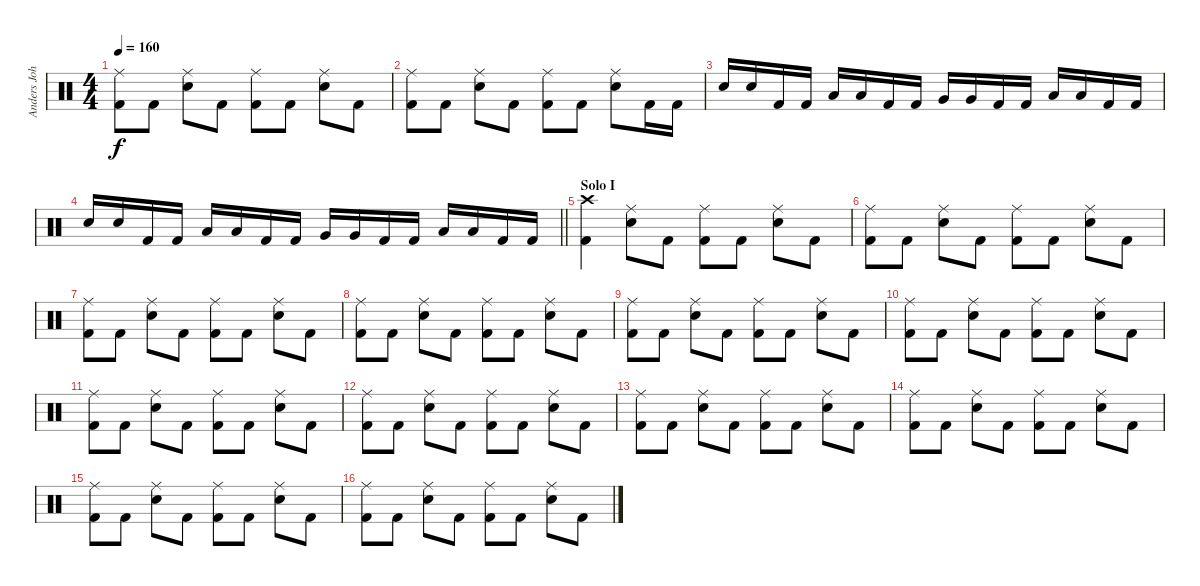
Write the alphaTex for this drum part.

\track ("Anders Johansson" "Anders Joh") {instrument percussion}
\staff {score}
\articulation defaults
\ts (4 4)
\tempo 160
\clef neutral
\ks c
("Ride (middle)" "Kick (hit) 2").8{dy f} "Kick (hit) 2".8 ("Ride (middle)" "Snare (hit) 2").8 "Kick (hit) 2".8 ("Ride (middle)" "Kick (hit) 2").8 "Kick (hit) 2".8 ("Ride (middle)" "Snare (hit) 2").8 "Kick (hit) 2".8 |
("Ride (middle)" "Kick (hit) 2").8 "Kick (hit) 2".8 ("Ride (middle)" "Snare (hit) 2").8 "Kick (hit) 2".8 ("Ride (middle)" "Kick (hit) 2").8 "Kick (hit) 2".8 ("Ride (middle)" "Snare (hit) 2").8 "Kick (hit) 2".16 "Kick (hit) 2".16 |
"Snare (hit) 2".16 "Snare (hit) 2".16 "Kick (hit) 2".16 "Kick (hit) 2".16 "Low Tom (hit)".16 "Low Tom (hit)".16 "Kick (hit) 2".16 "Kick (hit) 2".16 "Very Low Tom (hit)".16 "Very Low Tom (hit)".16 "Kick (hit) 2".16 "Kick (hit) 2".16 "Low Floor Tom (hit)".16 "Low Floor Tom (hit)".16 "Kick (hit) 2".16 "Kick (hit) 2".16 |
\barLineRight lightlight "Snare (hit) 2".16 "Snare (hit) 2".16 "Kick (hit) 2".16 "Kick (hit) 2".16 "Low Tom (hit)".16 "Low Tom (hit)".16 "Kick (hit) 2".16 "Kick (hit) 2".16 "Very Low Tom (hit)".16 "Very Low Tom (hit)".16 "Kick (hit) 2".16 "Kick (hit) 2".16 "Low Floor Tom (hit)".16 "Low Floor Tom (hit)".16 "Kick (hit) 2".16 "Kick (hit) 2".16
|
\section ("" "Solo I")
("Crash high (hit)" "Kick (hit) 2").4 ("Ride (middle)" "Snare (hit) 2").8 "Kick (hit) 2".8 ("Ride (middle)" "Kick (hit) 2").8 "Kick (hit) 2".8 ("Ride (middle)" "Snare (hit) 2").8 "Kick (hit) 2".8 |
("Ride (middle)" "Kick (hit) 2").8 "Kick (hit) 2".8 ("Ride (middle)" "Snare (hit) 2").8 "Kick (hit) 2".8 ("Ride (middle)" "Kick (hit) 2").8 "Kick (hit) 2".8 ("Ride (middle)" "Snare (hit) 2").8 "Kick (hit) 2".8 |
("Ride (middle)" "Kick (hit) 2").8 "Kick (hit) 2".8 ("Ride (middle)" "Snare (hit) 2").8 "Kick (hit) 2".8 ("Ride (middle)" "Kick (hit) 2").8 "Kick (hit) 2".8 ("Ride (middle)" "Snare (hit) 2").8 "Kick (hit) 2".8 |
("Ride (middle)" "Kick (hit) 2").8 "Kick (hit) 2".8 ("Ride (middle)" "Snare (hit) 2").8 "Kick (hit) 2".8 ("Ride (middle)" "Kick (hit) 2").8 "Kick (hit) 2".8 ("Ride (middle)" "Snare (hit) 2").8 "Kick (hit) 2".8 |
("Ride (middle)" "Kick (hit) 2").8 "Kick (hit) 2".8 ("Ride (middle)" "Snare (hit) 2").8 "Kick (hit) 2".8 ("Ride (middle)" "Kick (hit) 2").8 "Kick (hit) 2".8 ("Ride (middle)" "Snare (hit) 2").8 "Kick (hit) 2".8 |
("Ride (middle)" "Kick (hit) 2").8 "Kick (hit) 2".8 ("Ride (middle)" "Snare (hit) 2").8 "Kick (hit) 2".8 ("Ride (middle)" "Kick (hit) 2").8 "Kick (hit) 2".8 ("Ride (middle)" "Snare (hit) 2").8 "Kick (hit) 2".8 |
("Ride (middle)" "Kick (hit) 2").8 "Kick (hit) 2".8 ("Ride (middle)" "Snare (hit) 2").8 "Kick (hit) 2".8 ("Ride (middle)" "Kick (hit) 2").8 "Kick (hit) 2".8 ("Ride (middle)" "Snare (hit) 2").8 "Kick (hit) 2".8 |
("Ride (middle)" "Kick (hit) 2").8 "Kick (hit) 2".8 ("Ride (middle)" "Snare (hit) 2").8 "Kick (hit) 2".8 ("Ride (middle)" "Kick (hit) 2").8 "Kick (hit) 2".8 ("Ride (middle)" "Snare (hit) 2").8 "Kick (hit) 2".8 |
("Ride (middle)" "Kick (hit) 2").8 "Kick (hit) 2".8 ("Ride (middle)" "Snare (hit) 2").8 "Kick (hit) 2".8 ("Ride (middle)" "Kick (hit) 2").8 "Kick (hit) 2".8 ("Ride (middle)" "Snare (hit) 2").8 "Kick (hit) 2".8 |
("Ride (middle)" "Kick (hit) 2").8 "Kick (hit) 2".8 ("Ride (middle)" "Snare (hit) 2").8 "Kick (hit) 2".8 ("Ride (middle)" "Kick (hit) 2").8 "Kick (hit) 2".8 ("Ride (middle)" "Snare (hit) 2").8 "Kick (hit) 2".8 |
("Ride (middle)" "Kick (hit) 2").8 "Kick (hit) 2".8 ("Ride (middle)" "Snare (hit) 2").8 "Kick (hit) 2".8 ("Ride (middle)" "Kick (hit) 2").8 "Kick (hit) 2".8 ("Ride (middle)" "Snare (hit) 2").8 "Kick (hit) 2".8 |
("Ride (middle)" "Kick (hit) 2").8 "Kick (hit) 2".8 ("Ride (middle)" "Snare (hit) 2").8 "Kick (hit) 2".8 ("Ride (middle)" "Kick (hit) 2").8 "Kick (hit) 2".8 ("Ride (middle)" "Snare (hit) 2").8 "Kick (hit) 2".8
